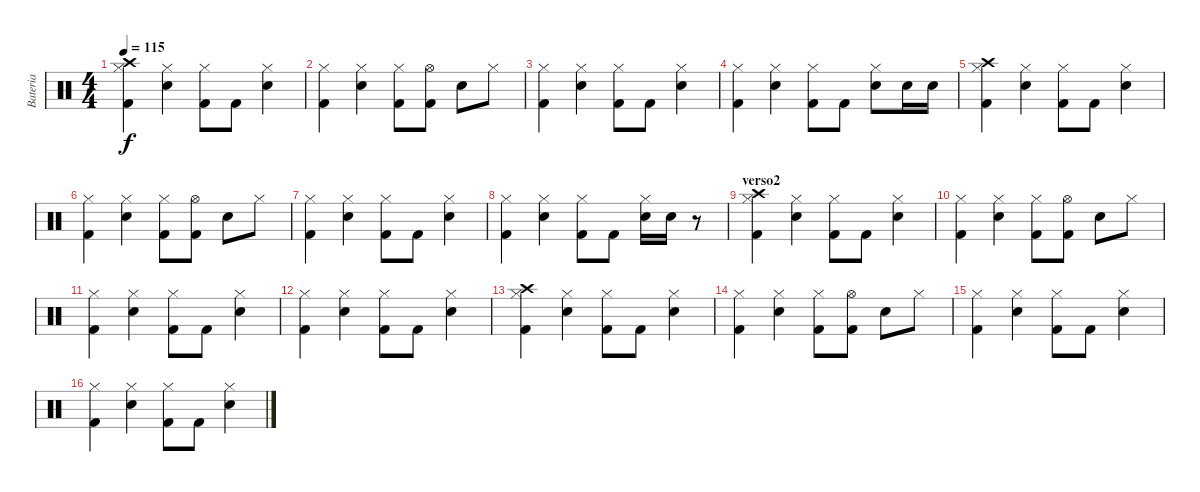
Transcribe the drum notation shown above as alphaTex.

\track ("Bateria" "Bateria") {instrument percussion}
\staff {score}
\articulation defaults
\ts (4 4)
\tempo 115
\clef neutral
\ks c
("Crash high (hit)" "Hi-Hat (closed)" "Kick (hit) 2").4{dy f} ("Hi-Hat (closed)" "Electric Snare (hit)").4 ("Hi-Hat (closed)" "Kick (hit) 2").8 "Kick (hit) 2".8 ("Hi-Hat (closed)" "Electric Snare (hit)").4 |
("Hi-Hat (closed)" "Kick (hit) 2").4 ("Hi-Hat (closed)" "Electric Snare (hit)").4 ("Hi-Hat (closed)" "Kick (hit) 2").8 ("Hi-Hat (open)" "Kick (hit) 2").8 "Electric Snare (hit)".8 "Hi-Hat (closed)".8 |
("Hi-Hat (closed)" "Kick (hit) 2").4 ("Hi-Hat (closed)" "Electric Snare (hit)").4 ("Hi-Hat (closed)" "Kick (hit) 2").8 "Kick (hit) 2".8 ("Hi-Hat (closed)" "Electric Snare (hit)").4 |
("Hi-Hat (closed)" "Kick (hit) 2").4 ("Hi-Hat (closed)" "Electric Snare (hit)").4 ("Hi-Hat (closed)" "Kick (hit) 2").8 "Kick (hit) 2".8 ("Hi-Hat (closed)" "Electric Snare (hit)").8 "Electric Snare (hit)".16 "Electric Snare (hit)".16 |
("Crash high (hit)" "Hi-Hat (closed)" "Kick (hit) 2").4 ("Hi-Hat (closed)" "Electric Snare (hit)").4 ("Hi-Hat (closed)" "Kick (hit) 2").8 "Kick (hit) 2".8 ("Hi-Hat (closed)" "Electric Snare (hit)").4 |
("Hi-Hat (closed)" "Kick (hit) 2").4 ("Hi-Hat (closed)" "Electric Snare (hit)").4 ("Hi-Hat (closed)" "Kick (hit) 2").8 ("Hi-Hat (open)" "Kick (hit) 2").8 "Electric Snare (hit)".8 "Hi-Hat (closed)".8 |
("Hi-Hat (closed)" "Kick (hit) 2").4 ("Hi-Hat (closed)" "Electric Snare (hit)").4 ("Hi-Hat (closed)" "Kick (hit) 2").8 "Kick (hit) 2".8 ("Hi-Hat (closed)" "Electric Snare (hit)").4 |
("Hi-Hat (closed)" "Kick (hit) 2").4 ("Hi-Hat (closed)" "Electric Snare (hit)").4 ("Hi-Hat (closed)" "Kick (hit) 2").8 "Kick (hit) 2".8 ("Hi-Hat (closed)" "Electric Snare (hit)").16 "Electric Snare (hit)".16 r.8 |
\section ("" "verso2")
("Crash high (hit)" "Hi-Hat (closed)" "Kick (hit) 2").4 ("Hi-Hat (closed)" "Electric Snare (hit)").4 ("Hi-Hat (closed)" "Kick (hit) 2").8 "Kick (hit) 2".8 ("Hi-Hat (closed)" "Electric Snare (hit)").4 |
("Hi-Hat (closed)" "Kick (hit) 2").4 ("Hi-Hat (closed)" "Electric Snare (hit)").4 ("Hi-Hat (closed)" "Kick (hit) 2").8 ("Hi-Hat (open)" "Kick (hit) 2").8 "Electric Snare (hit)".8 "Hi-Hat (closed)".8 |
("Hi-Hat (closed)" "Kick (hit) 2").4 ("Hi-Hat (closed)" "Electric Snare (hit)").4 ("Hi-Hat (closed)" "Kick (hit) 2").8 "Kick (hit) 2".8 ("Hi-Hat (closed)" "Electric Snare (hit)").4 |
("Hi-Hat (closed)" "Kick (hit) 2").4 ("Hi-Hat (closed)" "Electric Snare (hit)").4 ("Hi-Hat (closed)" "Kick (hit) 2").8 "Kick (hit) 2".8 ("Hi-Hat (closed)" "Electric Snare (hit)").4 |
("Crash high (hit)" "Hi-Hat (closed)" "Kick (hit) 2").4 ("Hi-Hat (closed)" "Electric Snare (hit)").4 ("Hi-Hat (closed)" "Kick (hit) 2").8 "Kick (hit) 2".8 ("Hi-Hat (closed)" "Electric Snare (hit)").4 |
("Hi-Hat (closed)" "Kick (hit) 2").4 ("Hi-Hat (closed)" "Electric Snare (hit)").4 ("Hi-Hat (closed)" "Kick (hit) 2").8 ("Hi-Hat (open)" "Kick (hit) 2").8 "Electric Snare (hit)".8 "Hi-Hat (closed)".8 |
("Hi-Hat (closed)" "Kick (hit) 2").4 ("Hi-Hat (closed)" "Electric Snare (hit)").4 ("Hi-Hat (closed)" "Kick (hit) 2").8 "Kick (hit) 2".8 ("Hi-Hat (closed)" "Electric Snare (hit)").4 |
("Hi-Hat (closed)" "Kick (hit) 2").4 ("Hi-Hat (closed)" "Electric Snare (hit)").4 ("Hi-Hat (closed)" "Kick (hit) 2").8 "Kick (hit) 2".8 ("Hi-Hat (closed)" "Electric Snare (hit)").4
